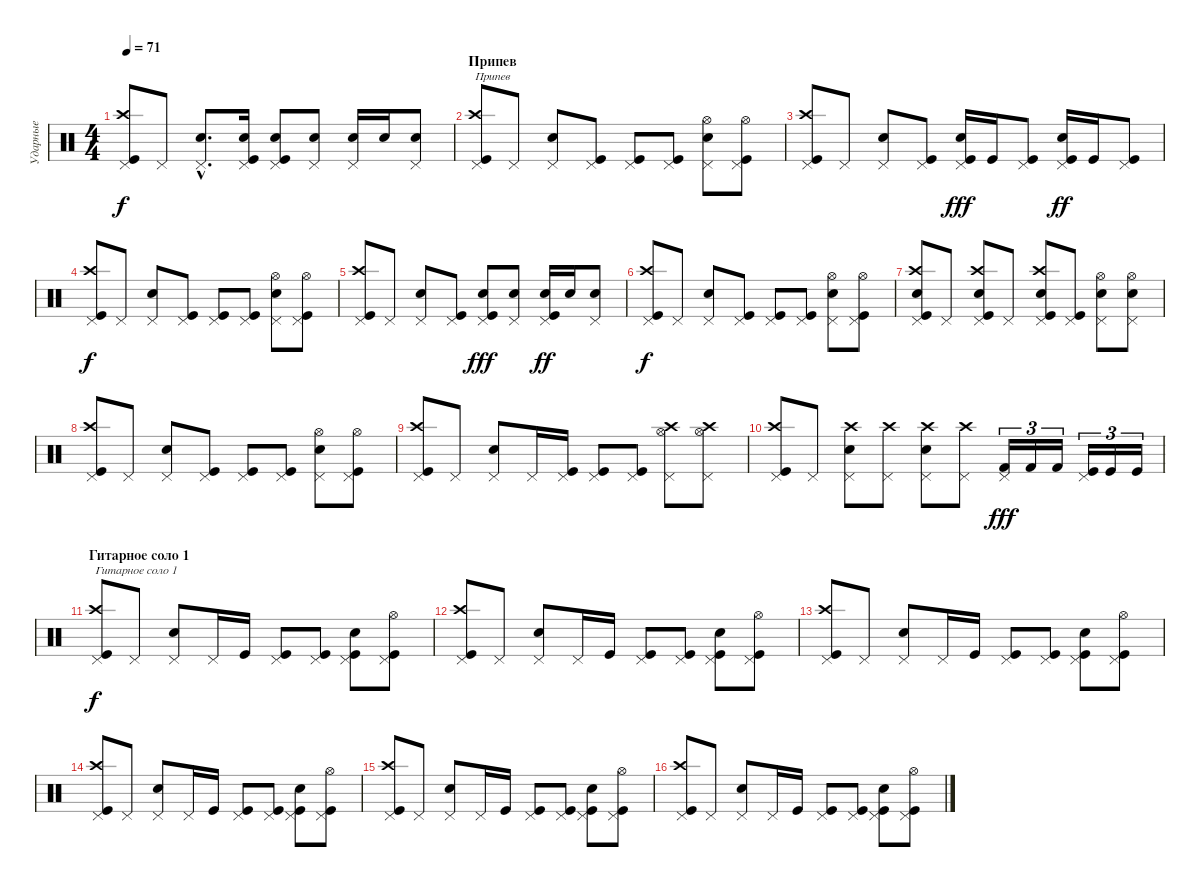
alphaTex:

\track ("Ударные" "Ударные") {instrument percussion}
\staff {score}
\articulation defaults
\ts (4 4)
\tempo 71
\clef neutral
\ks c
("Kick (hit)" "Crash high (hit)" "Pedal Hi-Hat (hit)").8{dy f} "Pedal Hi-Hat (hit)".8 ("Snare (hit) 2"{hac} "Pedal Hi-Hat (hit)"{hac}).8{d} ("Snare (hit) 2" "Kick (hit)" "Pedal Hi-Hat (hit)").16 ("Kick (hit)" "Snare (hit) 2" "Pedal Hi-Hat (hit)").8 ("Snare (hit) 2" "Pedal Hi-Hat (hit)").8 ("Snare (hit) 2" "Pedal Hi-Hat (hit)").16 "Snare (hit) 2".16 ("Snare (hit) 2" "Pedal Hi-Hat (hit)").8 |
\section ("" "Припев")
("Crash high (hit)" "Kick (hit)" "Pedal Hi-Hat (hit)").8{txt "Припев"} "Pedal Hi-Hat (hit)".8 ("Snare (hit) 2" "Pedal Hi-Hat (hit)").8 ("Kick (hit)" "Pedal Hi-Hat (hit)").8 ("Kick (hit)" "Pedal Hi-Hat (hit)").8 ("Kick (hit)" "Pedal Hi-Hat (hit)").8 ("Hi-Hat (open)" "Snare (hit) 2" "Pedal Hi-Hat (hit)").8 ("Hi-Hat (open)" "Kick (hit)" "Pedal Hi-Hat (hit)").8 |
("Crash high (hit)" "Kick (hit)" "Pedal Hi-Hat (hit)").8 "Pedal Hi-Hat (hit)".8 ("Snare (hit) 2" "Pedal Hi-Hat (hit)").8 ("Kick (hit)" "Pedal Hi-Hat (hit)").8 ("Kick (hit)" "Snare (hit) 2" "Pedal Hi-Hat (hit)").16{dy fff} "Kick (hit)".16 ("Kick (hit)" "Pedal Hi-Hat (hit)").8 ("Kick (hit)" "Snare (hit) 2" "Pedal Hi-Hat (hit)").16{dy ff} "Kick (hit)".16 ("Kick (hit)" "Pedal Hi-Hat (hit)").8 |
("Crash high (hit)" "Kick (hit)" "Pedal Hi-Hat (hit)").8{dy f} "Pedal Hi-Hat (hit)".8 ("Snare (hit) 2" "Pedal Hi-Hat (hit)").8 ("Kick (hit)" "Pedal Hi-Hat (hit)").8 ("Kick (hit)" "Pedal Hi-Hat (hit)").8 ("Kick (hit)" "Pedal Hi-Hat (hit)").8 ("Hi-Hat (open)" "Snare (hit) 2" "Pedal Hi-Hat (hit)").8 ("Hi-Hat (open)" "Kick (hit)" "Pedal Hi-Hat (hit)").8 |
("Crash high (hit)" "Kick (hit)" "Pedal Hi-Hat (hit)").8 "Pedal Hi-Hat (hit)".8 ("Snare (hit) 2" "Pedal Hi-Hat (hit)").8 ("Kick (hit)" "Pedal Hi-Hat (hit)").8 ("Kick (hit)" "Snare (hit) 2" "Pedal Hi-Hat (hit)").8{dy fff} ("Snare (hit) 2" "Pedal Hi-Hat (hit)").8 ("Kick (hit)" "Snare (hit) 2" "Pedal Hi-Hat (hit)").16{dy ff} "Snare (hit) 2".16 ("Snare (hit) 2" "Pedal Hi-Hat (hit)").8 |
("Crash high (hit)" "Kick (hit)" "Pedal Hi-Hat (hit)").8{dy f} "Pedal Hi-Hat (hit)".8 ("Snare (hit) 2" "Pedal Hi-Hat (hit)").8 ("Kick (hit)" "Pedal Hi-Hat (hit)").8 ("Kick (hit)" "Pedal Hi-Hat (hit)").8 ("Kick (hit)" "Pedal Hi-Hat (hit)").8 ("Hi-Hat (open)" "Snare (hit) 2" "Pedal Hi-Hat (hit)").8 ("Hi-Hat (open)" "Kick (hit)" "Pedal Hi-Hat (hit)").8 |
("Kick (hit)" "Snare (hit) 2" "Crash high (hit)" "Pedal Hi-Hat (hit)").8 "Pedal Hi-Hat (hit)".8 ("Kick (hit)" "Snare (hit) 2" "Crash high (hit)" "Pedal Hi-Hat (hit)").8 "Pedal Hi-Hat (hit)".8 ("Kick (hit)" "Snare (hit) 2" "Crash high (hit)" "Pedal Hi-Hat (hit)").8 ("Kick (hit)" "Pedal Hi-Hat (hit)").8 ("Hi-Hat (open)" "Snare (hit) 2" "Pedal Hi-Hat (hit)").8 ("Hi-Hat (open)" "Snare (hit) 2" "Pedal Hi-Hat (hit)").8 |
("Crash high (hit)" "Kick (hit)" "Pedal Hi-Hat (hit)").8 "Pedal Hi-Hat (hit)".8 ("Snare (hit) 2" "Pedal Hi-Hat (hit)").8 ("Kick (hit)" "Pedal Hi-Hat (hit)").8 ("Kick (hit)" "Pedal Hi-Hat (hit)").8 ("Kick (hit)" "Pedal Hi-Hat (hit)").8 ("Hi-Hat (open)" "Snare (hit) 2" "Pedal Hi-Hat (hit)").8 ("Hi-Hat (open)" "Kick (hit)" "Pedal Hi-Hat (hit)").8 |
("Kick (hit)" "Crash high (hit)" "Pedal Hi-Hat (hit)").8 "Pedal Hi-Hat (hit)".8 ("Snare (hit) 2" "Pedal Hi-Hat (hit)").8 "Pedal Hi-Hat (hit)".16 ("Kick (hit)" "Pedal Hi-Hat (hit)").16 ("Kick (hit)" "Pedal Hi-Hat (hit)").8 ("Kick (hit)" "Pedal Hi-Hat (hit)").8 ("Crash high (hit)" "Hi-Hat (open)" "Pedal Hi-Hat (hit)").8 ("Crash high (hit)" "Hi-Hat (open)" "Pedal Hi-Hat (hit)").8 |
("Kick (hit)" "Crash high (hit)" "Pedal Hi-Hat (hit)").8 "Pedal Hi-Hat (hit)".8 ("Snare (hit) 2" "Crash high (hit)" "Pedal Hi-Hat (hit)").8 ("Crash high (hit)" "Pedal Hi-Hat (hit)").8 ("Snare (hit) 2" "Crash high (hit)" "Pedal Hi-Hat (hit)").8 ("Crash high (hit)" "Pedal Hi-Hat (hit)").8 ("Kick (hit) 2" "Pedal Hi-Hat (hit)").16{tu (3 2) dy fff} "Kick (hit) 2".16{tu (3 2)} "Kick (hit) 2".16{tu (3 2)} ("Kick (hit)" "Pedal Hi-Hat (hit)").16{tu (3 2)} "Kick (hit)".16{tu (3 2)} "Kick (hit)".16{tu (3 2)} |
\section ("" "Гитарное соло 1")
("Crash high (hit)" "Kick (hit)" "Pedal Hi-Hat (hit)").8{txt "Гитарное соло 1" dy f} "Pedal Hi-Hat (hit)".8 ("Snare (hit) 2" "Pedal Hi-Hat (hit)").8 "Pedal Hi-Hat (hit)".16 "Kick (hit)".16 ("Kick (hit)" "Pedal Hi-Hat (hit)").8 ("Kick (hit)" "Pedal Hi-Hat (hit)").8 ("Kick (hit)" "Snare (hit) 2" "Pedal Hi-Hat (hit)").8 ("Hi-Hat (open)" "Kick (hit)" "Pedal Hi-Hat (hit)").8 |
("Crash high (hit)" "Kick (hit)" "Pedal Hi-Hat (hit)").8 "Pedal Hi-Hat (hit)".8 ("Snare (hit) 2" "Pedal Hi-Hat (hit)").8 "Pedal Hi-Hat (hit)".16 "Kick (hit)".16 ("Kick (hit)" "Pedal Hi-Hat (hit)").8 ("Kick (hit)" "Pedal Hi-Hat (hit)").8 ("Kick (hit)" "Snare (hit) 2" "Pedal Hi-Hat (hit)").8 ("Hi-Hat (open)" "Kick (hit)" "Pedal Hi-Hat (hit)").8 |
("Crash high (hit)" "Kick (hit)" "Pedal Hi-Hat (hit)").8 "Pedal Hi-Hat (hit)".8 ("Snare (hit) 2" "Pedal Hi-Hat (hit)").8 "Pedal Hi-Hat (hit)".16 "Kick (hit)".16 ("Kick (hit)" "Pedal Hi-Hat (hit)").8 ("Kick (hit)" "Pedal Hi-Hat (hit)").8 ("Kick (hit)" "Snare (hit) 2" "Pedal Hi-Hat (hit)").8 ("Hi-Hat (open)" "Kick (hit)" "Pedal Hi-Hat (hit)").8 |
("Crash high (hit)" "Kick (hit)" "Pedal Hi-Hat (hit)").8 "Pedal Hi-Hat (hit)".8 ("Snare (hit) 2" "Pedal Hi-Hat (hit)").8 "Pedal Hi-Hat (hit)".16 "Kick (hit)".16 ("Kick (hit)" "Pedal Hi-Hat (hit)").8 ("Kick (hit)" "Pedal Hi-Hat (hit)").8 ("Kick (hit)" "Snare (hit) 2" "Pedal Hi-Hat (hit)").8 ("Hi-Hat (open)" "Kick (hit)" "Pedal Hi-Hat (hit)").8 |
("Crash high (hit)" "Kick (hit)" "Pedal Hi-Hat (hit)").8 "Pedal Hi-Hat (hit)".8 ("Snare (hit) 2" "Pedal Hi-Hat (hit)").8 "Pedal Hi-Hat (hit)".16 "Kick (hit)".16 ("Kick (hit)" "Pedal Hi-Hat (hit)").8 ("Kick (hit)" "Pedal Hi-Hat (hit)").8 ("Kick (hit)" "Snare (hit) 2" "Pedal Hi-Hat (hit)").8 ("Hi-Hat (open)" "Kick (hit)" "Pedal Hi-Hat (hit)").8 |
("Crash high (hit)" "Kick (hit)" "Pedal Hi-Hat (hit)").8 "Pedal Hi-Hat (hit)".8 ("Snare (hit) 2" "Pedal Hi-Hat (hit)").8 "Pedal Hi-Hat (hit)".16 "Kick (hit)".16 ("Kick (hit)" "Pedal Hi-Hat (hit)").8 ("Kick (hit)" "Pedal Hi-Hat (hit)").8 ("Kick (hit)" "Snare (hit) 2" "Pedal Hi-Hat (hit)").8 ("Hi-Hat (open)" "Kick (hit)" "Pedal Hi-Hat (hit)").8
